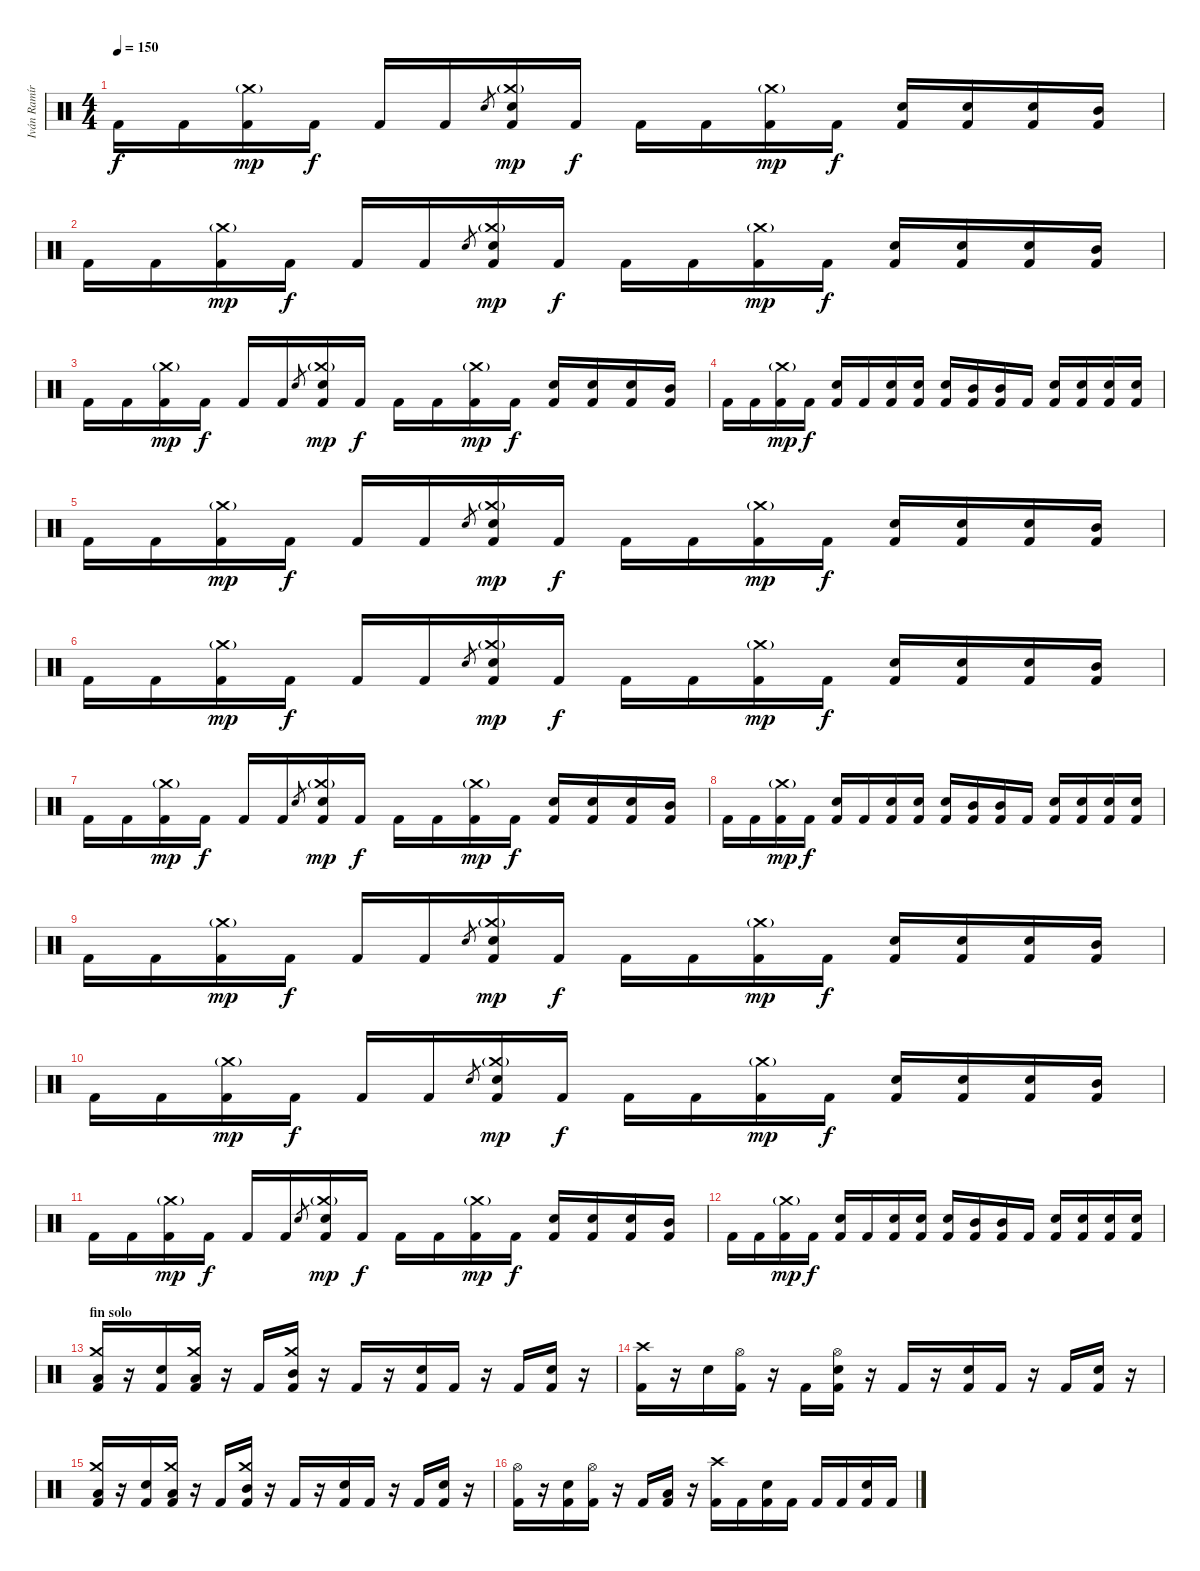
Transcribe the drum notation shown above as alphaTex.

\track ("Iván Ramírez" "Iván Ramír") {instrument percussion}
\staff {score}
\articulation defaults
\ts (4 4)
\tempo 150
\clef neutral
\ks c "Kick (hit) 2".16{dy f} "Kick (hit) 2".16
("Crash medium (hit)"{g} "Kick (hit) 2").16{dy mp} "Kick (hit) 2".16{dy f} "Kick (hit) 2".16 "Kick (hit) 2".16 "Electric Snare (hit)".8{gr} ("Crash medium (hit)"{g} "Electric Snare (hit)" "Kick (hit) 2").16{dy mp} "Kick (hit) 2".16{dy f} "Kick (hit) 2".16 "Kick (hit) 2".16 ("Crash medium (hit)"{g} "Kick (hit) 2").16{dy mp} "Kick (hit) 2".16{dy f} ("Electric Snare (hit)" "Kick (hit) 2").16 ("Electric Snare (hit)" "Kick (hit) 2").16 ("Electric Snare (hit)" "Kick (hit) 2").16 ("Mid Tom (hit)" "Kick (hit) 2").16 |
"Kick (hit) 2".16 "Kick (hit) 2".16 ("Crash medium (hit)"{g} "Kick (hit) 2").16{dy mp} "Kick (hit) 2".16{dy f} "Kick (hit) 2".16 "Kick (hit) 2".16 "Electric Snare (hit)".8{gr} ("Crash medium (hit)"{g} "Electric Snare (hit)" "Kick (hit) 2").16{dy mp} "Kick (hit) 2".16{dy f} "Kick (hit) 2".16 "Kick (hit) 2".16 ("Crash medium (hit)"{g} "Kick (hit) 2").16{dy mp} "Kick (hit) 2".16{dy f} ("Electric Snare (hit)" "Kick (hit) 2").16 ("Electric Snare (hit)" "Kick (hit) 2").16 ("Electric Snare (hit)" "Kick (hit) 2").16 ("Mid Tom (hit)" "Kick (hit) 2").16 |
"Kick (hit) 2".16 "Kick (hit) 2".16 ("Crash medium (hit)"{g} "Kick (hit) 2").16{dy mp} "Kick (hit) 2".16{dy f} "Kick (hit) 2".16 "Kick (hit) 2".16 "Electric Snare (hit)".8{gr} ("Crash medium (hit)"{g} "Electric Snare (hit)" "Kick (hit) 2").16{dy mp} "Kick (hit) 2".16{dy f} "Kick (hit) 2".16 "Kick (hit) 2".16 ("Crash medium (hit)"{g} "Kick (hit) 2").16{dy mp} "Kick (hit) 2".16{dy f} ("Electric Snare (hit)" "Kick (hit) 2").16 ("Electric Snare (hit)" "Kick (hit) 2").16 ("Electric Snare (hit)" "Kick (hit) 2").16 ("Mid Tom (hit)" "Kick (hit) 2").16 |
"Kick (hit) 2".16 "Kick (hit) 2".16 ("Crash medium (hit)"{g} "Kick (hit) 2").16{dy mp} "Kick (hit) 2".16{dy f} ("Electric Snare (hit)" "Kick (hit) 2").16 "Kick (hit) 2".16 ("Electric Snare (hit)" "Kick (hit) 2").16 ("Electric Snare (hit)" "Kick (hit) 2").16 ("Electric Snare (hit)" "Kick (hit) 2").16 ("Mid Tom (hit)" "Kick (hit) 2").16 ("Mid Tom (hit)" "Kick (hit) 2").16 "Kick (hit) 2".16 ("Electric Snare (hit)" "Kick (hit) 2").16 ("Electric Snare (hit)" "Kick (hit) 2").16 ("Electric Snare (hit)" "Kick (hit) 2").16 ("Electric Snare (hit)" "Kick (hit) 2").16 |
"Kick (hit) 2".16 "Kick (hit) 2".16 ("Crash medium (hit)"{g} "Kick (hit) 2").16{dy mp} "Kick (hit) 2".16{dy f} "Kick (hit) 2".16 "Kick (hit) 2".16 "Electric Snare (hit)".8{gr} ("Crash medium (hit)"{g} "Electric Snare (hit)" "Kick (hit) 2").16{dy mp} "Kick (hit) 2".16{dy f} "Kick (hit) 2".16 "Kick (hit) 2".16 ("Crash medium (hit)"{g} "Kick (hit) 2").16{dy mp} "Kick (hit) 2".16{dy f} ("Electric Snare (hit)" "Kick (hit) 2").16 ("Electric Snare (hit)" "Kick (hit) 2").16 ("Electric Snare (hit)" "Kick (hit) 2").16 ("Mid Tom (hit)" "Kick (hit) 2").16 |
"Kick (hit) 2".16 "Kick (hit) 2".16 ("Crash medium (hit)"{g} "Kick (hit) 2").16{dy mp} "Kick (hit) 2".16{dy f} "Kick (hit) 2".16 "Kick (hit) 2".16 "Electric Snare (hit)".8{gr} ("Crash medium (hit)"{g} "Electric Snare (hit)" "Kick (hit) 2").16{dy mp} "Kick (hit) 2".16{dy f} "Kick (hit) 2".16 "Kick (hit) 2".16 ("Crash medium (hit)"{g} "Kick (hit) 2").16{dy mp} "Kick (hit) 2".16{dy f} ("Electric Snare (hit)" "Kick (hit) 2").16 ("Electric Snare (hit)" "Kick (hit) 2").16 ("Electric Snare (hit)" "Kick (hit) 2").16 ("Mid Tom (hit)" "Kick (hit) 2").16 |
"Kick (hit) 2".16 "Kick (hit) 2".16 ("Crash medium (hit)"{g} "Kick (hit) 2").16{dy mp} "Kick (hit) 2".16{dy f} "Kick (hit) 2".16 "Kick (hit) 2".16 "Electric Snare (hit)".8{gr} ("Crash medium (hit)"{g} "Electric Snare (hit)" "Kick (hit) 2").16{dy mp} "Kick (hit) 2".16{dy f} "Kick (hit) 2".16 "Kick (hit) 2".16 ("Crash medium (hit)"{g} "Kick (hit) 2").16{dy mp} "Kick (hit) 2".16{dy f} ("Electric Snare (hit)" "Kick (hit) 2").16 ("Electric Snare (hit)" "Kick (hit) 2").16 ("Electric Snare (hit)" "Kick (hit) 2").16 ("Mid Tom (hit)" "Kick (hit) 2").16 |
"Kick (hit) 2".16 "Kick (hit) 2".16 ("Crash medium (hit)"{g} "Kick (hit) 2").16{dy mp} "Kick (hit) 2".16{dy f} ("Electric Snare (hit)" "Kick (hit) 2").16 "Kick (hit) 2".16 ("Electric Snare (hit)" "Kick (hit) 2").16 ("Electric Snare (hit)" "Kick (hit) 2").16 ("Electric Snare (hit)" "Kick (hit) 2").16 ("Mid Tom (hit)" "Kick (hit) 2").16 ("Mid Tom (hit)" "Kick (hit) 2").16 "Kick (hit) 2".16 ("Electric Snare (hit)" "Kick (hit) 2").16 ("Electric Snare (hit)" "Kick (hit) 2").16 ("Electric Snare (hit)" "Kick (hit) 2").16 ("Electric Snare (hit)" "Kick (hit) 2").16 |
"Kick (hit) 2".16 "Kick (hit) 2".16 ("Crash medium (hit)"{g} "Kick (hit) 2").16{dy mp} "Kick (hit) 2".16{dy f} "Kick (hit) 2".16 "Kick (hit) 2".16 "Electric Snare (hit)".8{gr} ("Crash medium (hit)"{g} "Electric Snare (hit)" "Kick (hit) 2").16{dy mp} "Kick (hit) 2".16{dy f} "Kick (hit) 2".16 "Kick (hit) 2".16 ("Crash medium (hit)"{g} "Kick (hit) 2").16{dy mp} "Kick (hit) 2".16{dy f} ("Electric Snare (hit)" "Kick (hit) 2").16 ("Electric Snare (hit)" "Kick (hit) 2").16 ("Electric Snare (hit)" "Kick (hit) 2").16 ("Mid Tom (hit)" "Kick (hit) 2").16 |
"Kick (hit) 2".16 "Kick (hit) 2".16 ("Crash medium (hit)"{g} "Kick (hit) 2").16{dy mp} "Kick (hit) 2".16{dy f} "Kick (hit) 2".16 "Kick (hit) 2".16 "Electric Snare (hit)".8{gr} ("Crash medium (hit)"{g} "Electric Snare (hit)" "Kick (hit) 2").16{dy mp} "Kick (hit) 2".16{dy f} "Kick (hit) 2".16 "Kick (hit) 2".16 ("Crash medium (hit)"{g} "Kick (hit) 2").16{dy mp} "Kick (hit) 2".16{dy f} ("Electric Snare (hit)" "Kick (hit) 2").16 ("Electric Snare (hit)" "Kick (hit) 2").16 ("Electric Snare (hit)" "Kick (hit) 2").16 ("Mid Tom (hit)" "Kick (hit) 2").16 |
"Kick (hit) 2".16 "Kick (hit) 2".16 ("Crash medium (hit)"{g} "Kick (hit) 2").16{dy mp} "Kick (hit) 2".16{dy f} "Kick (hit) 2".16 "Kick (hit) 2".16 "Electric Snare (hit)".8{gr} ("Crash medium (hit)"{g} "Electric Snare (hit)" "Kick (hit) 2").16{dy mp} "Kick (hit) 2".16{dy f} "Kick (hit) 2".16 "Kick (hit) 2".16 ("Crash medium (hit)"{g} "Kick (hit) 2").16{dy mp} "Kick (hit) 2".16{dy f} ("Electric Snare (hit)" "Kick (hit) 2").16 ("Electric Snare (hit)" "Kick (hit) 2").16 ("Electric Snare (hit)" "Kick (hit) 2").16 ("Mid Tom (hit)" "Kick (hit) 2").16 |
"Kick (hit) 2".16 "Kick (hit) 2".16 ("Crash medium (hit)"{g} "Kick (hit) 2").16{dy mp} "Kick (hit) 2".16{dy f} ("Electric Snare (hit)" "Kick (hit) 2").16 "Kick (hit) 2".16 ("Electric Snare (hit)" "Kick (hit) 2").16 ("Electric Snare (hit)" "Kick (hit) 2").16 ("Electric Snare (hit)" "Kick (hit) 2").16 ("Mid Tom (hit)" "Kick (hit) 2").16 ("Mid Tom (hit)" "Kick (hit) 2").16 "Kick (hit) 2".16 ("Electric Snare (hit)" "Kick (hit) 2").16 ("Electric Snare (hit)" "Kick (hit) 2").16 ("Electric Snare (hit)" "Kick (hit) 2").16 ("Electric Snare (hit)" "Kick (hit) 2").16 |
\section ("" "fin solo")
("Crash medium (hit)" "Low Tom (hit)" "Kick (hit) 2").16 r.16 ("Electric Snare (hit)" "Kick (hit) 2").16 ("Crash medium (hit)" "Low Tom (hit)" "Kick (hit) 2").16 r.16 "Kick (hit) 2".16 ("Crash medium (hit)" "Mid Tom (hit)" "Kick (hit) 2").16 r.16 "Kick (hit) 2".16 r.16 ("Electric Snare (hit)" "Kick (hit) 2").16 "Kick (hit) 2".16 r.16 "Kick (hit) 2".16 ("Electric Snare (hit)" "Kick (hit) 2").16 r.16 |
("Crash high (hit)" "Kick (hit) 2").16 r.16 "Electric Snare (hit)".16 ("Hi-Hat (open)" "Kick (hit) 2").16 r.16 "Kick (hit) 2".16 ("Hi-Hat (open)" "Electric Snare (hit)" "Kick (hit) 2").16 r.16 "Kick (hit) 2".16 r.16 ("Electric Snare (hit)" "Kick (hit) 2").16 "Kick (hit) 2".16 r.16 "Kick (hit) 2".16 ("Electric Snare (hit)" "Kick (hit) 2").16 r.16 |
("Crash medium (hit)" "Low Tom (hit)" "Kick (hit) 2").16 r.16 ("Electric Snare (hit)" "Kick (hit) 2").16 ("Crash medium (hit)" "Low Tom (hit)" "Kick (hit) 2").16 r.16 "Kick (hit) 2".16 ("Crash medium (hit)" "Mid Tom (hit)" "Kick (hit) 2").16 r.16 "Kick (hit) 2".16 r.16 ("Electric Snare (hit)" "Kick (hit) 2").16 "Kick (hit) 2".16 r.16 "Kick (hit) 2".16 ("Electric Snare (hit)" "Kick (hit) 2").16 r.16 |
("Hi-Hat (open)" "Kick (hit) 2").16 r.16 ("Electric Snare (hit)" "Kick (hit) 2").16 ("Hi-Hat (open)" "Kick (hit) 2").16 r.16 "Kick (hit) 2".16 ("Low Tom (hit)" "Kick (hit) 2").16 r.16 ("Crash high (hit)" "Kick (hit) 2").16 "Kick (hit) 2".16 ("Electric Snare (hit)" "Kick (hit) 2").16 "Kick (hit) 2".16 "Kick (hit) 2".16 "Kick (hit) 2".16 ("Electric Snare (hit)" "Kick (hit) 2").16 "Kick (hit) 2".16
